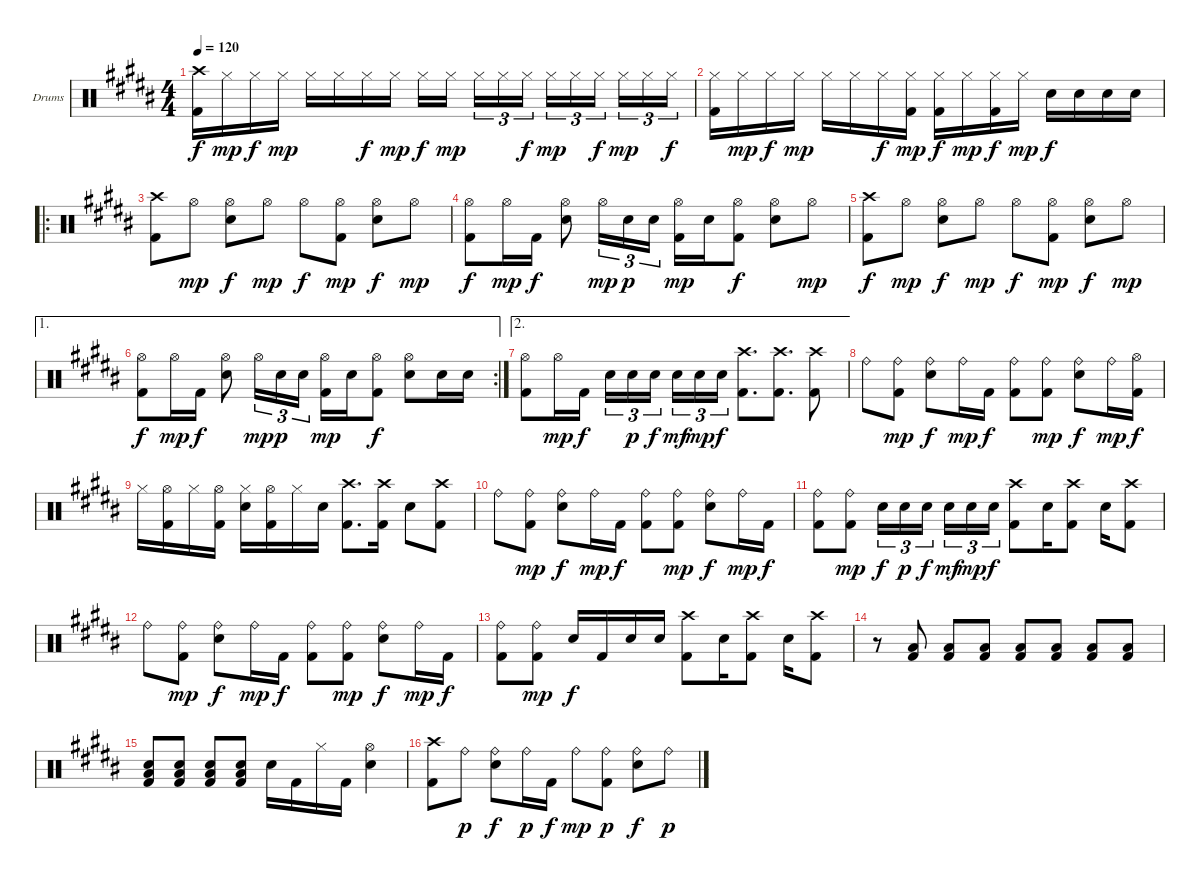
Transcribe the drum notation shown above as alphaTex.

\bracketExtendMode groupsimilarinstruments
\firstSystemTrackNameOrientation horizontal
\otherSystemsTrackNameOrientation horizontal
\track ("Drumkit" "Drums") {instrument percussion}
\staff {score}
\articulation defaults
\ts (4 4)
\tempo 120
\clef neutral
\ks g#minor
("Crash high (hit)"{acc forcenatural} "Kick (hit) 2"{acc forcenatural}).16{dy f} "Hi-Hat (closed)"{acc forcenatural}.16{dy mp} "Hi-Hat (closed)"{acc forcenatural}.16{dy f} "Hi-Hat (closed)"{acc forcenatural}.16{dy mp} "Hi-Hat (closed)"{acc forcenatural}.16 "Hi-Hat (closed)"{acc forcenatural}.16 "Hi-Hat (closed)"{acc forcenatural}.16{dy f} "Hi-Hat (closed)"{acc forcenatural}.16{dy mp} "Hi-Hat (closed)"{acc forcenatural}.16{dy f} "Hi-Hat (closed)"{acc forcenatural}.16{dy mp} "Hi-Hat (closed)"{acc forcenatural}.16{tu (3 2)} "Hi-Hat (closed)"{acc forcenatural}.16{tu (3 2)} "Hi-Hat (closed)"{acc forcenatural}.16{tu (3 2) dy f} "Hi-Hat (closed)"{acc forcenatural}.16{tu (3 2) dy mp} "Hi-Hat (closed)"{acc forcenatural}.16{tu (3 2)} "Hi-Hat (closed)"{acc forcenatural}.16{tu (3 2) dy f} "Hi-Hat (closed)"{acc forcenatural}.16{tu (3 2) dy mp} "Hi-Hat (closed)"{acc forcenatural}.16{tu (3 2)} "Hi-Hat (closed)"{acc forcenatural}.16{tu (3 2) dy f} |
("Hi-Hat (closed)"{acc forcenatural} "Kick (hit) 2"{acc forcenatural}).16 "Hi-Hat (closed)"{acc forcenatural}.16{dy mp} "Hi-Hat (closed)"{acc forcenatural}.16{dy f} "Hi-Hat (closed)"{acc forcenatural}.16{dy mp} "Hi-Hat (closed)"{acc forcenatural}.16 "Hi-Hat (closed)"{acc forcenatural}.16 "Hi-Hat (closed)"{acc forcenatural}.16{dy f} ("Hi-Hat (closed)"{acc forcenatural} "Kick (hit) 2"{acc forcenatural}).16{dy mp} ("Hi-Hat (closed)"{acc forcenatural} "Kick (hit) 2"{acc forcenatural}).16{dy f} "Hi-Hat (closed)"{acc forcenatural}.16{dy mp} ("Hi-Hat (closed)"{acc forcenatural} "Kick (hit) 2"{acc forcenatural}).16{dy f} "Hi-Hat (closed)"{acc forcenatural}.16{dy mp} "Snare (hit) 2"{acc forcenatural}.16{dy f} "Snare (hit) 2"{acc forcenatural}.16 "Snare (hit) 2"{acc forcenatural}.16 "Snare (hit) 2"{acc forcenatural}.16 |
\ro
("Crash high (hit)"{acc forcenatural} "Kick (hit) 2"{acc forcenatural}).8 "Hi-Hat (open)"{acc forcenatural}.8{dy mp} ("Hi-Hat (open)"{acc forcenatural} "Snare (hit) 2"{acc forcenatural}).8{dy f} "Hi-Hat (open)"{acc forcenatural}.8{dy mp} "Hi-Hat (open)"{acc forcenatural}.8{dy f} ("Hi-Hat (open)"{acc forcenatural} "Kick (hit) 2"{acc forcenatural}).8{dy mp} ("Hi-Hat (open)"{acc forcenatural} "Snare (hit) 2"{acc forcenatural}).8{dy f} "Hi-Hat (open)"{acc forcenatural}.8{dy mp} |
("Hi-Hat (open)"{acc forcenatural} "Kick (hit) 2"{acc forcenatural}).8{dy f} "Hi-Hat (open)"{acc forcenatural}.16{dy mp} "Kick (hit) 2"{acc forcenatural}.16{dy f} ("Hi-Hat (open)"{acc forcenatural} "Snare (hit) 2"{acc forcenatural}).8 "Hi-Hat (open)"{acc forcenatural}.16{tu (3 2) dy mp} "Snare (hit) 2"{acc forcenatural}.16{tu (3 2) dy p} "Snare (hit) 2"{acc forcenatural}.16{tu (3 2)} ("Hi-Hat (open)"{acc forcenatural} "Kick (hit) 2"{acc forcenatural}).16{dy mp} "Snare (hit) 2"{acc forcenatural}.16 ("Hi-Hat (open)"{acc forcenatural} "Kick (hit) 2"{acc forcenatural}).8{dy f} ("Hi-Hat (open)"{acc forcenatural} "Snare (hit) 2"{acc forcenatural}).8 "Hi-Hat (open)"{acc forcenatural}.8{dy mp} |
("Crash high (hit)"{acc forcenatural} "Kick (hit) 2"{acc forcenatural}).8{dy f} "Hi-Hat (open)"{acc forcenatural}.8{dy mp} ("Hi-Hat (open)"{acc forcenatural} "Snare (hit) 2"{acc forcenatural}).8{dy f} "Hi-Hat (open)"{acc forcenatural}.8{dy mp} "Hi-Hat (open)"{acc forcenatural}.8{dy f} ("Hi-Hat (open)"{acc forcenatural} "Kick (hit) 2"{acc forcenatural}).8{dy mp} ("Hi-Hat (open)"{acc forcenatural} "Snare (hit) 2"{acc forcenatural}).8{dy f} "Hi-Hat (open)"{acc forcenatural}.8{dy mp} |
\ae 1
\rc 2
("Hi-Hat (open)"{acc forcenatural} "Kick (hit) 2"{acc forcenatural}).8{dy f} "Hi-Hat (open)"{acc forcenatural}.16{dy mp} "Kick (hit) 2"{acc forcenatural}.16{dy f} ("Hi-Hat (open)"{acc forcenatural} "Snare (hit) 2"{acc forcenatural}).8 "Hi-Hat (open)"{acc forcenatural}.16{tu (3 2) dy mp} "Snare (hit) 2"{acc forcenatural}.16{tu (3 2) dy p} "Snare (hit) 2"{acc forcenatural}.16{tu (3 2)} ("Hi-Hat (open)"{acc forcenatural} "Kick (hit) 2"{acc forcenatural}).16{dy mp} "Snare (hit) 2"{acc forcenatural}.16 ("Hi-Hat (open)"{acc forcenatural} "Kick (hit) 2"{acc forcenatural}).8{dy f} ("Hi-Hat (open)"{acc forcenatural} "Snare (hit) 2"{acc forcenatural}).8 "Snare (hit) 2"{acc forcenatural}.16 "Snare (hit) 2"{acc forcenatural}.16 |
\ae 2
("Hi-Hat (open)"{acc forcenatural} "Kick (hit) 2"{acc forcenatural}).8 "Hi-Hat (open)"{acc forcenatural}.16{dy mp} "Kick (hit) 2"{acc forcenatural}.16{dy f} "Snare (hit) 2"{acc forcenatural}.16{tu (3 2)} "Snare (hit) 2"{acc forcenatural}.16{tu (3 2) dy p} "Snare (hit) 2"{acc forcenatural}.16{tu (3 2) dy f} "Snare (hit) 2"{acc forcenatural}.16{tu (3 2) dy mf} "Snare (hit) 2"{acc forcenatural}.16{tu (3 2) dy mp} "Snare (hit) 2"{acc forcenatural}.16{tu (3 2) dy f} ("Crash high (hit)"{acc forcenatural} "Kick (hit) 2"{acc forcenatural}).8{d} ("Crash high (hit)"{acc forcenatural} "Kick (hit) 2"{acc forcenatural}).8{d} ("Crash high (hit)"{acc forcenatural} "Kick (hit) 2"{acc forcenatural}).8 |
"Ride (bell)"{acc forcenatural}.8 ("Ride (bell)"{acc forcenatural} "Kick (hit) 2"{acc forcenatural}).8{dy mp} ("Ride (bell)"{acc forcenatural} "Snare (hit) 2"{acc forcenatural}).8{dy f} "Ride (bell)"{acc forcenatural}.16{dy mp} "Kick (hit) 2"{acc forcenatural}.16{dy f} ("Ride (bell)"{acc forcenatural} "Kick (hit) 2"{acc forcenatural}).8 ("Ride (bell)"{acc forcenatural} "Kick (hit) 2"{acc forcenatural}).8{dy mp} ("Ride (bell)"{acc forcenatural} "Snare (hit) 2"{acc forcenatural}).8{dy f} "Ride (bell)"{acc forcenatural}.16{dy mp} ("Hi-Hat (open)"{acc forcenatural} "Kick (hit) 2"{acc forcenatural}).16{dy f} |
"Hi-Hat (closed)"{acc forcenatural}.16 ("Hi-Hat (open)"{acc forcenatural} "Kick (hit) 2"{acc forcenatural}).16 "Hi-Hat (closed)"{acc forcenatural}.16 ("Hi-Hat (open)"{acc forcenatural} "Kick (hit) 2"{acc forcenatural}).16 ("Hi-Hat (closed)"{acc forcenatural} "Snare (hit) 2"{acc forcenatural}).16 ("Hi-Hat (open)"{acc forcenatural} "Kick (hit) 2"{acc forcenatural}).16 "Hi-Hat (closed)"{acc forcenatural}.16 "Snare (hit) 2"{acc forcenatural}.16 ("Crash high (hit)"{acc forcenatural} "Kick (hit) 2"{acc forcenatural}).8{d} ("Crash high (hit)"{acc forcenatural} "Kick (hit) 2"{acc forcenatural}).16 "Snare (hit) 2"{acc forcenatural}.8 ("Crash high (hit)"{acc forcenatural} "Kick (hit) 2"{acc forcenatural}).8 |
"Ride (bell)"{acc forcenatural}.8 ("Ride (bell)"{acc forcenatural} "Kick (hit) 2"{acc forcenatural}).8{dy mp} ("Ride (bell)"{acc forcenatural} "Snare (hit) 2"{acc forcenatural}).8{dy f} "Ride (bell)"{acc forcenatural}.16{dy mp} "Kick (hit) 2"{acc forcenatural}.16{dy f} ("Ride (bell)"{acc forcenatural} "Kick (hit) 2"{acc forcenatural}).8 ("Ride (bell)"{acc forcenatural} "Kick (hit) 2"{acc forcenatural}).8{dy mp} ("Ride (bell)"{acc forcenatural} "Snare (hit) 2"{acc forcenatural}).8{dy f} "Ride (bell)"{acc forcenatural}.16{dy mp} "Kick (hit) 2"{acc forcenatural}.16{dy f} |
("Ride (bell)"{acc forcenatural} "Kick (hit) 2"{acc forcenatural}).8 ("Ride (bell)"{acc forcenatural} "Kick (hit) 2"{acc forcenatural}).8{dy mp} "Snare (hit) 2"{acc forcenatural}.16{tu (3 2) dy f} "Snare (hit) 2"{acc forcenatural}.16{tu (3 2) dy p} "Snare (hit) 2"{acc forcenatural}.16{tu (3 2) dy f} "Snare (hit) 2"{acc forcenatural}.16{tu (3 2) dy mf} "Snare (hit) 2"{acc forcenatural}.16{tu (3 2) dy mp} "Snare (hit) 2"{acc forcenatural}.16{tu (3 2) dy f} ("Crash high (hit)"{acc forcenatural} "Kick (hit) 2"{acc forcenatural}).8 "Snare (hit) 2"{acc forcenatural}.16 ("Crash high (hit)"{acc forcenatural} "Kick (hit) 2"{acc forcenatural}).8 "Snare (hit) 2"{acc forcenatural}.16 ("Crash high (hit)"{acc forcenatural} "Kick (hit) 2"{acc forcenatural}).8 |
"Ride (bell)"{acc forcenatural}.8 ("Ride (bell)"{acc forcenatural} "Kick (hit) 2"{acc forcenatural}).8{dy mp} ("Ride (bell)"{acc forcenatural} "Snare (hit) 2"{acc forcenatural}).8{dy f} "Ride (bell)"{acc forcenatural}.16{dy mp} "Kick (hit) 2"{acc forcenatural}.16{dy f} ("Ride (bell)"{acc forcenatural} "Kick (hit) 2"{acc forcenatural}).8 ("Ride (bell)"{acc forcenatural} "Kick (hit) 2"{acc forcenatural}).8{dy mp} ("Ride (bell)"{acc forcenatural} "Snare (hit) 2"{acc forcenatural}).8{dy f} "Ride (bell)"{acc forcenatural}.16{dy mp} "Kick (hit) 2"{acc forcenatural}.16{dy f} |
("Ride (bell)"{acc forcenatural} "Kick (hit) 2"{acc forcenatural}).8 ("Ride (bell)"{acc forcenatural} "Kick (hit) 2"{acc forcenatural}).8{dy mp} "Snare (hit) 2"{acc forcenatural}.16{dy f} "Kick (hit) 2"{acc forcenatural}.16 "Snare (hit) 2"{acc forcenatural}.16 "Snare (hit) 2"{acc forcenatural}.16 ("Crash high (hit)"{acc forcenatural} "Kick (hit) 2"{acc forcenatural}).8 "Snare (hit) 2"{acc forcenatural}.16 ("Crash high (hit)"{acc forcenatural} "Kick (hit) 2"{acc forcenatural}).8 "Snare (hit) 2"{acc forcenatural}.16 ("Crash high (hit)"{acc forcenatural} "Kick (hit) 2"{acc forcenatural}).8 |
r.8 ("Low Tom (hit)"{acc forcenatural} "Kick (hit) 2"{acc forcenatural}).8 ("Low Tom (hit)"{acc forcenatural} "Kick (hit) 2"{acc forcenatural}).8 ("Low Tom (hit)"{acc forcenatural} "Kick (hit) 2"{acc forcenatural}).8 ("Low Tom (hit)"{acc forcenatural} "Kick (hit) 2"{acc forcenatural}).8 ("Low Tom (hit)"{acc forcenatural} "Kick (hit) 2"{acc forcenatural}).8 ("Low Tom (hit)"{acc forcenatural} "Kick (hit) 2"{acc forcenatural}).8 ("Low Tom (hit)"{acc forcenatural} "Kick (hit) 2"{acc forcenatural}).8 |
("Snare (hit) 2"{acc forcenatural} "Low Tom (hit)"{acc forcenatural} "Kick (hit) 2"{acc forcenatural}).8 ("Snare (hit) 2"{acc forcenatural} "Low Tom (hit)"{acc forcenatural} "Kick (hit) 2"{acc forcenatural}).8 ("Snare (hit) 2"{acc forcenatural} "Low Tom (hit)"{acc forcenatural} "Kick (hit) 2"{acc forcenatural}).8 ("Snare (hit) 2"{acc forcenatural} "Low Tom (hit)"{acc forcenatural} "Kick (hit) 2"{acc forcenatural}).8 "Snare (hit) 2"{acc forcenatural}.16 "Kick (hit) 2"{acc forcenatural}.16 "Hi-Hat (closed)"{acc forcenatural}.16 "Kick (hit) 2"{acc forcenatural}.16 ("Hi-Hat (open)"{acc forcenatural} "Snare (hit) 2"{acc forcenatural}).4 |
("Crash high (hit)"{acc forcenatural} "Kick (hit) 2"{acc forcenatural}).8 "Ride (bell)"{acc forcenatural}.8{dy p} ("Ride (bell)"{acc forcenatural} "Snare (hit) 2"{acc forcenatural}).8{dy f} "Ride (bell)"{acc forcenatural}.16{dy p} "Kick (hit) 2"{acc forcenatural}.16{dy f} "Ride (bell)"{acc forcenatural}.8{dy mp} ("Ride (bell)"{acc forcenatural} "Kick (hit) 2"{acc forcenatural}).8{dy p} ("Ride (bell)"{acc forcenatural} "Snare (hit) 2"{acc forcenatural}).8{dy f} "Ride (bell)"{acc forcenatural}.8{dy p}
